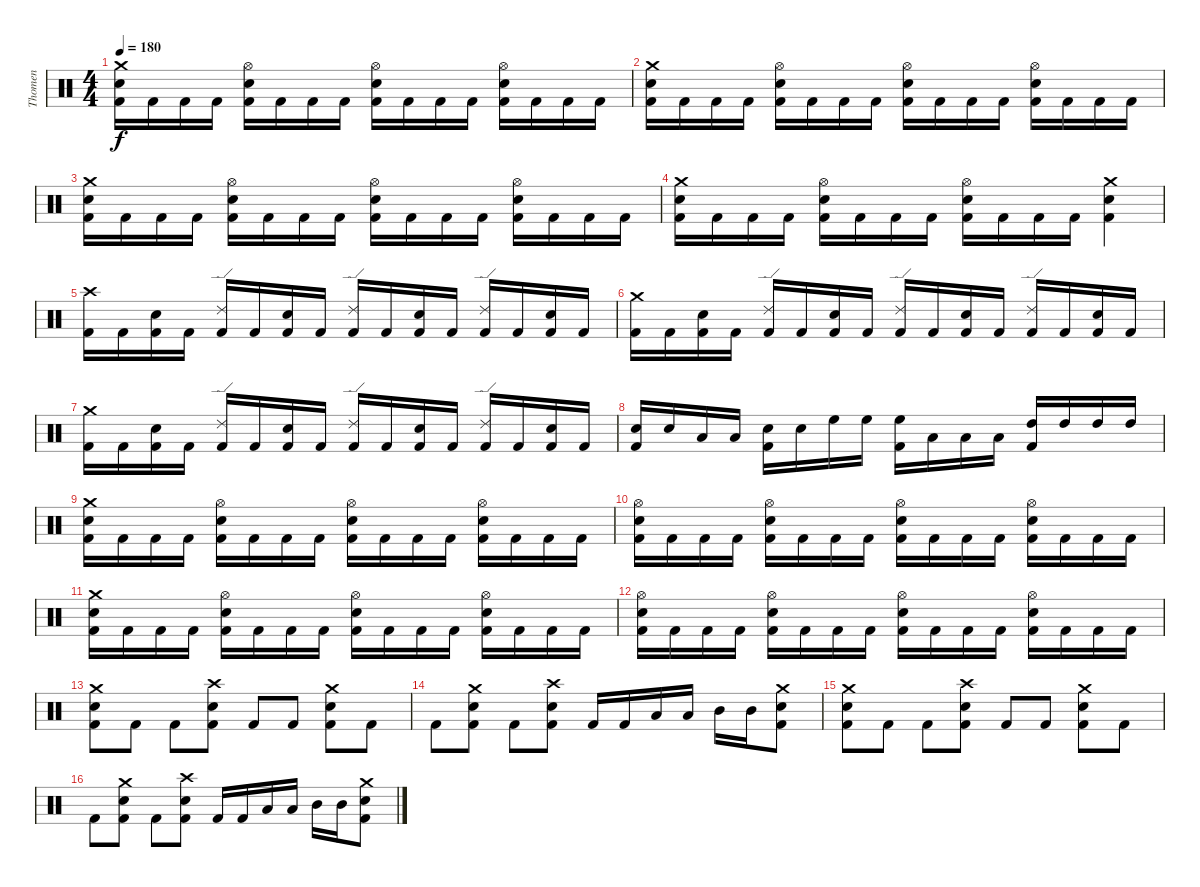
\track ("Thomen" "Thomen") {instrument percussion}
\staff {score}
\articulation defaults
\ts (4 4)
\tempo 180
\clef neutral
\ks c
("Kick (hit) 2" "Electric Snare (hit)" "Crash medium (hit)").16{dy f} "Kick (hit) 2".16 "Kick (hit) 2".16 "Kick (hit) 2".16 ("Kick (hit) 2" "Electric Snare (hit)" "Hi-Hat (open)").16 "Kick (hit) 2".16 "Kick (hit) 2".16 "Kick (hit) 2".16 ("Kick (hit) 2" "Electric Snare (hit)" "Hi-Hat (open)").16 "Kick (hit) 2".16 "Kick (hit) 2".16 "Kick (hit) 2".16 ("Kick (hit) 2" "Electric Snare (hit)" "Hi-Hat (open)").16 "Kick (hit) 2".16 "Kick (hit) 2".16 "Kick (hit) 2".16 |
("Kick (hit) 2" "Electric Snare (hit)" "Crash medium (hit)").16 "Kick (hit) 2".16 "Kick (hit) 2".16 "Kick (hit) 2".16 ("Kick (hit) 2" "Electric Snare (hit)" "Hi-Hat (open)").16 "Kick (hit) 2".16 "Kick (hit) 2".16 "Kick (hit) 2".16 ("Kick (hit) 2" "Electric Snare (hit)" "Hi-Hat (open)").16 "Kick (hit) 2".16 "Kick (hit) 2".16 "Kick (hit) 2".16 ("Kick (hit) 2" "Electric Snare (hit)" "Hi-Hat (open)").16 "Kick (hit) 2".16 "Kick (hit) 2".16 "Kick (hit) 2".16 |
("Kick (hit) 2" "Electric Snare (hit)" "Crash medium (hit)").16 "Kick (hit) 2".16 "Kick (hit) 2".16 "Kick (hit) 2".16 ("Kick (hit) 2" "Electric Snare (hit)" "Hi-Hat (open)").16 "Kick (hit) 2".16 "Kick (hit) 2".16 "Kick (hit) 2".16 ("Kick (hit) 2" "Electric Snare (hit)" "Hi-Hat (open)").16 "Kick (hit) 2".16 "Kick (hit) 2".16 "Kick (hit) 2".16 ("Kick (hit) 2" "Electric Snare (hit)" "Hi-Hat (open)").16 "Kick (hit) 2".16 "Kick (hit) 2".16 "Kick (hit) 2".16 |
("Kick (hit) 2" "Electric Snare (hit)" "Crash medium (hit)").16 "Kick (hit) 2".16 "Kick (hit) 2".16 "Kick (hit) 2".16 ("Kick (hit) 2" "Electric Snare (hit)" "Hi-Hat (open)").16 "Kick (hit) 2".16 "Kick (hit) 2".16 "Kick (hit) 2".16 ("Kick (hit) 2" "Electric Snare (hit)" "Hi-Hat (open)").16 "Kick (hit) 2".16 "Kick (hit) 2".16 "Kick (hit) 2".16 ("Kick (hit) 2" "Electric Snare (hit)" "Crash medium (hit)").4 |
("Kick (hit) 2" "Crash high (hit)").16 "Kick (hit) 2".16 ("Kick (hit) 2" "Electric Snare (hit)").16 "Kick (hit) 2".16 ("Kick (hit) 2" "Ride (edge) 2").16 "Kick (hit) 2".16 ("Kick (hit) 2" "Electric Snare (hit)").16 "Kick (hit) 2".16 ("Kick (hit) 2" "Ride (edge) 2").16 "Kick (hit) 2".16 ("Kick (hit) 2" "Electric Snare (hit)").16 "Kick (hit) 2".16 ("Kick (hit) 2" "Ride (edge) 2").16 "Kick (hit) 2".16 ("Kick (hit) 2" "Electric Snare (hit)").16 "Kick (hit) 2".16 |
("Kick (hit) 2" "Crash medium (hit)").16 "Kick (hit) 2".16 ("Kick (hit) 2" "Electric Snare (hit)").16 "Kick (hit) 2".16 ("Kick (hit) 2" "Ride (edge) 2").16 "Kick (hit) 2".16 ("Kick (hit) 2" "Electric Snare (hit)").16 "Kick (hit) 2".16 ("Kick (hit) 2" "Ride (edge) 2").16 "Kick (hit) 2".16 ("Kick (hit) 2" "Electric Snare (hit)").16 "Kick (hit) 2".16 ("Kick (hit) 2" "Ride (edge) 2").16 "Kick (hit) 2".16 ("Kick (hit) 2" "Electric Snare (hit)").16 "Kick (hit) 2".16 |
("Kick (hit) 2" "Crash medium (hit)").16 "Kick (hit) 2".16 ("Kick (hit) 2" "Electric Snare (hit)").16 "Kick (hit) 2".16 ("Kick (hit) 2" "Ride (edge) 2").16 "Kick (hit) 2".16 ("Kick (hit) 2" "Electric Snare (hit)").16 "Kick (hit) 2".16 ("Kick (hit) 2" "Ride (edge) 2").16 "Kick (hit) 2".16 ("Kick (hit) 2" "Electric Snare (hit)").16 "Kick (hit) 2".16 ("Kick (hit) 2" "Ride (edge) 2").16 "Kick (hit) 2".16 ("Kick (hit) 2" "Electric Snare (hit)").16 "Kick (hit) 2".16 |
("Kick (hit) 2" "Electric Snare (hit)").16 "Electric Snare (hit)".16 "Low Tom (hit)".16 "Low Tom (hit)".16 ("Kick (hit) 2" "Electric Snare (hit)").16 "Electric Snare (hit)".16 "High Floor Tom (hit)".16 "High Floor Tom (hit)".16 ("Kick (hit) 2" "High Floor Tom (hit)").16 "Low Tom (hit)".16 "Low Tom (hit)".16 "Low Tom (hit)".16 ("Kick (hit) 2" "High Tom (hit)").16 "High Tom (hit)".16 "High Tom (hit)".16 "High Tom (hit)".16 |
("Kick (hit) 2" "Electric Snare (hit)" "Crash medium (hit)").16 "Kick (hit) 2".16 "Kick (hit) 2".16 "Kick (hit) 2".16 ("Kick (hit) 2" "Electric Snare (hit)" "Hi-Hat (open)").16 "Kick (hit) 2".16 "Kick (hit) 2".16 "Kick (hit) 2".16 ("Kick (hit) 2" "Electric Snare (hit)" "Hi-Hat (open)").16 "Kick (hit) 2".16 "Kick (hit) 2".16 "Kick (hit) 2".16 ("Kick (hit) 2" "Electric Snare (hit)" "Hi-Hat (open)").16 "Kick (hit) 2".16 "Kick (hit) 2".16 "Kick (hit) 2".16 |
("Kick (hit) 2" "Electric Snare (hit)" "Hi-Hat (open)").16 "Kick (hit) 2".16 "Kick (hit) 2".16 "Kick (hit) 2".16 ("Kick (hit) 2" "Electric Snare (hit)" "Hi-Hat (open)").16 "Kick (hit) 2".16 "Kick (hit) 2".16 "Kick (hit) 2".16 ("Kick (hit) 2" "Electric Snare (hit)" "Hi-Hat (open)").16 "Kick (hit) 2".16 "Kick (hit) 2".16 "Kick (hit) 2".16 ("Kick (hit) 2" "Electric Snare (hit)" "Hi-Hat (open)").16 "Kick (hit) 2".16 "Kick (hit) 2".16 "Kick (hit) 2".16 |
("Kick (hit) 2" "Electric Snare (hit)" "Crash medium (hit)").16 "Kick (hit) 2".16 "Kick (hit) 2".16 "Kick (hit) 2".16 ("Kick (hit) 2" "Electric Snare (hit)" "Hi-Hat (open)").16 "Kick (hit) 2".16 "Kick (hit) 2".16 "Kick (hit) 2".16 ("Kick (hit) 2" "Electric Snare (hit)" "Hi-Hat (open)").16 "Kick (hit) 2".16 "Kick (hit) 2".16 "Kick (hit) 2".16 ("Kick (hit) 2" "Electric Snare (hit)" "Hi-Hat (open)").16 "Kick (hit) 2".16 "Kick (hit) 2".16 "Kick (hit) 2".16 |
("Kick (hit) 2" "Electric Snare (hit)" "Hi-Hat (open)").16 "Kick (hit) 2".16 "Kick (hit) 2".16 "Kick (hit) 2".16 ("Kick (hit) 2" "Electric Snare (hit)" "Hi-Hat (open)").16 "Kick (hit) 2".16 "Kick (hit) 2".16 "Kick (hit) 2".16 ("Kick (hit) 2" "Electric Snare (hit)" "Hi-Hat (open)").16 "Kick (hit) 2".16 "Kick (hit) 2".16 "Kick (hit) 2".16 ("Kick (hit) 2" "Electric Snare (hit)" "Hi-Hat (open)").16 "Kick (hit) 2".16 "Kick (hit) 2".16 "Kick (hit) 2".16 |
("Kick (hit) 2" "Electric Snare (hit)" "Crash medium (hit)").8 "Kick (hit) 2".8 "Kick (hit) 2".8 ("Kick (hit) 2" "Electric Snare (hit)" "Crash high (hit)").8 "Kick (hit) 2".8 "Kick (hit) 2".8 ("Kick (hit) 2" "Electric Snare (hit)" "Crash medium (hit)").8 "Kick (hit) 2".8 |
"Kick (hit) 2".8 ("Kick (hit) 2" "Electric Snare (hit)" "Crash medium (hit)").8 "Kick (hit) 2".8 ("Kick (hit) 2" "Electric Snare (hit)" "Crash high (hit)").8 "Kick (hit) 2".16 "Kick (hit) 2".16 "Low Tom (hit)".16 "Low Tom (hit)".16 "Mid Tom (hit)".16 "Mid Tom (hit)".16 ("Kick (hit) 2" "Electric Snare (hit)" "Crash medium (hit)").8 |
("Kick (hit) 2" "Electric Snare (hit)" "Crash medium (hit)").8 "Kick (hit) 2".8 "Kick (hit) 2".8 ("Kick (hit) 2" "Electric Snare (hit)" "Crash high (hit)").8 "Kick (hit) 2".8 "Kick (hit) 2".8 ("Kick (hit) 2" "Electric Snare (hit)" "Crash medium (hit)").8 "Kick (hit) 2".8 |
"Kick (hit) 2".8 ("Kick (hit) 2" "Electric Snare (hit)" "Crash medium (hit)").8 "Kick (hit) 2".8 ("Kick (hit) 2" "Electric Snare (hit)" "Crash high (hit)").8 "Kick (hit) 2".16 "Kick (hit) 2".16 "Low Tom (hit)".16 "Low Tom (hit)".16 "Mid Tom (hit)".16 "Mid Tom (hit)".16 ("Kick (hit) 2" "Electric Snare (hit)" "Crash medium (hit)").8
